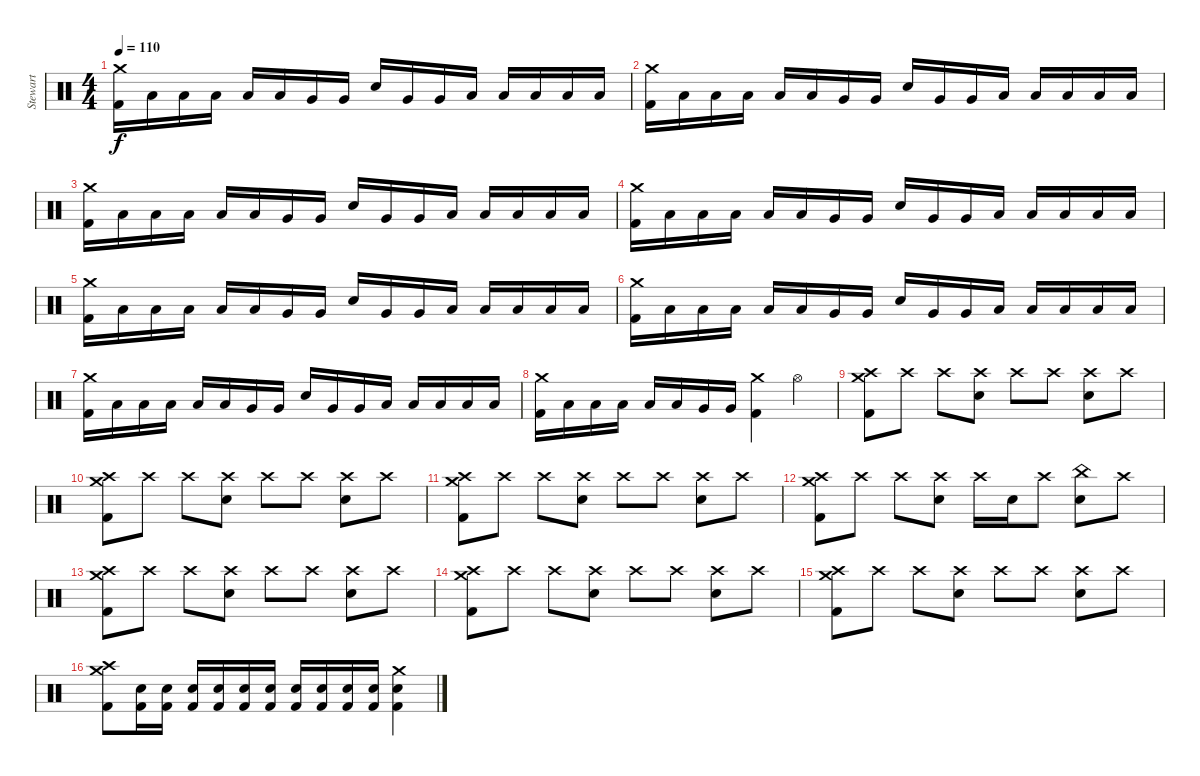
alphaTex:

\track ("Stewart" "Stewart") {instrument percussion}
\staff {score}
\articulation defaults
\ts (4 4)
\tempo 110
\clef neutral
\ks c
("Crash medium (hit)" "Kick (hit) 2").16{dy f} "Low Tom (hit)".16 "Low Tom (hit)".16 "Low Tom (hit)".16 "Low Tom (hit)".16 "Low Tom (hit)".16 "Very Low Tom (hit)".16 "Very Low Tom (hit)".16 "Electric Snare (hit)".16 "Very Low Tom (hit)".16 "Very Low Tom (hit)".16 "Low Tom (hit)".16 "Low Tom (hit)".16 "Low Tom (hit)".16 "Low Tom (hit)".16 "Low Tom (hit)".16 |
("Crash medium (hit)" "Kick (hit) 2").16 "Low Tom (hit)".16 "Low Tom (hit)".16 "Low Tom (hit)".16 "Low Tom (hit)".16 "Low Tom (hit)".16 "Very Low Tom (hit)".16 "Very Low Tom (hit)".16 "Electric Snare (hit)".16 "Very Low Tom (hit)".16 "Very Low Tom (hit)".16 "Low Tom (hit)".16 "Low Tom (hit)".16 "Low Tom (hit)".16 "Low Tom (hit)".16 "Low Tom (hit)".16 |
("Crash medium (hit)" "Kick (hit) 2").16 "Low Tom (hit)".16 "Low Tom (hit)".16 "Low Tom (hit)".16 "Low Tom (hit)".16 "Low Tom (hit)".16 "Very Low Tom (hit)".16 "Very Low Tom (hit)".16 "Electric Snare (hit)".16 "Very Low Tom (hit)".16 "Very Low Tom (hit)".16 "Low Tom (hit)".16 "Low Tom (hit)".16 "Low Tom (hit)".16 "Low Tom (hit)".16 "Low Tom (hit)".16 |
("Crash medium (hit)" "Kick (hit) 2").16 "Low Tom (hit)".16 "Low Tom (hit)".16 "Low Tom (hit)".16 "Low Tom (hit)".16 "Low Tom (hit)".16 "Very Low Tom (hit)".16 "Very Low Tom (hit)".16 "Electric Snare (hit)".16 "Very Low Tom (hit)".16 "Very Low Tom (hit)".16 "Low Tom (hit)".16 "Low Tom (hit)".16 "Low Tom (hit)".16 "Low Tom (hit)".16 "Low Tom (hit)".16 |
("Crash medium (hit)" "Kick (hit) 2").16 "Low Tom (hit)".16 "Low Tom (hit)".16 "Low Tom (hit)".16 "Low Tom (hit)".16 "Low Tom (hit)".16 "Very Low Tom (hit)".16 "Very Low Tom (hit)".16 "Electric Snare (hit)".16 "Very Low Tom (hit)".16 "Very Low Tom (hit)".16 "Low Tom (hit)".16 "Low Tom (hit)".16 "Low Tom (hit)".16 "Low Tom (hit)".16 "Low Tom (hit)".16 |
("Crash medium (hit)" "Kick (hit) 2").16 "Low Tom (hit)".16 "Low Tom (hit)".16 "Low Tom (hit)".16 "Low Tom (hit)".16 "Low Tom (hit)".16 "Very Low Tom (hit)".16 "Very Low Tom (hit)".16 "Electric Snare (hit)".16 "Very Low Tom (hit)".16 "Very Low Tom (hit)".16 "Low Tom (hit)".16 "Low Tom (hit)".16 "Low Tom (hit)".16 "Low Tom (hit)".16 "Low Tom (hit)".16 |
("Crash medium (hit)" "Kick (hit) 2").16 "Low Tom (hit)".16 "Low Tom (hit)".16 "Low Tom (hit)".16 "Low Tom (hit)".16 "Low Tom (hit)".16 "Very Low Tom (hit)".16 "Very Low Tom (hit)".16 "Electric Snare (hit)".16 "Very Low Tom (hit)".16 "Very Low Tom (hit)".16 "Low Tom (hit)".16 "Low Tom (hit)".16 "Low Tom (hit)".16 "Low Tom (hit)".16 "Low Tom (hit)".16 |
("Crash medium (hit)" "Kick (hit) 2").16 "Low Tom (hit)".16 "Low Tom (hit)".16 "Low Tom (hit)".16 "Low Tom (hit)".16 "Low Tom (hit)".16 "Very Low Tom (hit)".16 "Very Low Tom (hit)".16 ("Crash medium (hit)" "Kick (hit) 2").4 "Hi-Hat (open)".4 |
("Crash high (hit)" "Crash medium (hit)" "Kick (hit) 2").8 "Crash high (hit)".8 "Crash high (hit)".8 ("Crash high (hit)" "Electric Snare (hit)").8 "Crash high (hit)".8 "Crash high (hit)".8 ("Crash high (hit)" "Electric Snare (hit)").8 "Crash high (hit)".8 |
("Crash high (hit)" "Crash medium (hit)" "Kick (hit) 2").8 "Crash high (hit)".8 "Crash high (hit)".8 ("Crash high (hit)" "Electric Snare (hit)").8 "Crash high (hit)".8 "Crash high (hit)".8 ("Crash high (hit)" "Electric Snare (hit)").8 "Crash high (hit)".8 |
("Crash high (hit)" "Crash medium (hit)" "Kick (hit) 2").8 "Crash high (hit)".8 "Crash high (hit)".8 ("Crash high (hit)" "Electric Snare (hit)").8 "Crash high (hit)".8 "Crash high (hit)".8 ("Crash high (hit)" "Electric Snare (hit)").8 "Crash high (hit)".8 |
("Crash high (hit)" "Crash medium (hit)" "Kick (hit) 2").8 "Crash high (hit)".8 "Crash high (hit)".8 ("Crash high (hit)" "Electric Snare (hit)").8 "Crash high (hit)".16 "Electric Snare (hit)".16 "Crash high (hit)".8 ("China (hit)" "Electric Snare (hit)").8 "Crash high (hit)".8 |
("Crash high (hit)" "Crash medium (hit)" "Kick (hit) 2").8 "Crash high (hit)".8 "Crash high (hit)".8 ("Crash high (hit)" "Electric Snare (hit)").8 "Crash high (hit)".8 "Crash high (hit)".8 ("Crash high (hit)" "Electric Snare (hit)").8 "Crash high (hit)".8 |
("Crash high (hit)" "Crash medium (hit)" "Kick (hit) 2").8 "Crash high (hit)".8 "Crash high (hit)".8 ("Crash high (hit)" "Electric Snare (hit)").8 "Crash high (hit)".8 "Crash high (hit)".8 ("Crash high (hit)" "Electric Snare (hit)").8 "Crash high (hit)".8 |
("Crash high (hit)" "Crash medium (hit)" "Kick (hit) 2").8 "Crash high (hit)".8 "Crash high (hit)".8 ("Crash high (hit)" "Electric Snare (hit)").8 "Crash high (hit)".8 "Crash high (hit)".8 ("Crash high (hit)" "Electric Snare (hit)").8 "Crash high (hit)".8 |
("Crash high (hit)" "Crash medium (hit)" "Kick (hit) 2").8 ("Electric Snare (hit)" "Kick (hit) 2").16 ("Electric Snare (hit)" "Kick (hit) 2").16 ("Electric Snare (hit)" "Kick (hit) 2").16 ("Electric Snare (hit)" "Kick (hit) 2").16 ("Electric Snare (hit)" "Kick (hit) 2").16 ("Electric Snare (hit)" "Kick (hit) 2").16 ("Electric Snare (hit)" "Kick (hit) 2").16 ("Electric Snare (hit)" "Kick (hit) 2").16 ("Electric Snare (hit)" "Kick (hit) 2").16 ("Electric Snare (hit)" "Kick (hit) 2").16 ("Crash medium (hit)" "Electric Snare (hit)" "Kick (hit) 2").4
